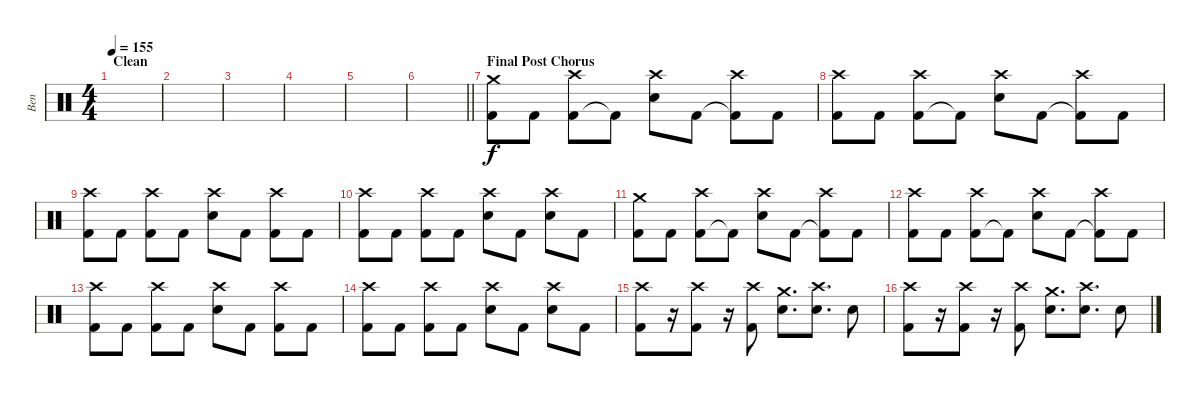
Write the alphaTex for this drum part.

\track ("Ben" "Ben") {instrument percussion}
\staff {score}
\articulation defaults
\ts (4 4)
\section ("" "Clean")
\tempo 155
\clef neutral
\ks c
|
|
|
|
|
\barLineRight lightlight
|
\section ("" "Final Post Chorus")
("Kick (hit) 2" "Crash medium (hit)").8 "Kick (hit) 2".8 ("Kick (hit) 2" "Crash high (hit)").8 "Kick (hit) 2"{t}.8 ("Electric Snare (hit)" "Crash high (hit)").8 "Kick (hit) 2".8 ("Kick (hit) 2"{t} "Crash high (hit)").8 "Kick (hit) 2".8 |
("Kick (hit) 2" "Crash high (hit)").8 "Kick (hit) 2".8 ("Kick (hit) 2" "Crash high (hit)").8 "Kick (hit) 2"{t}.8 ("Electric Snare (hit)" "Crash high (hit)").8 "Kick (hit) 2".8 ("Kick (hit) 2"{t} "Crash high (hit)").8 "Kick (hit) 2".8 |
("Kick (hit) 2" "Crash high (hit)").8 "Kick (hit) 2".8 ("Kick (hit) 2" "Crash high (hit)").8 "Kick (hit) 2".8 ("Electric Snare (hit)" "Crash high (hit)").8 "Kick (hit) 2".8 ("Kick (hit) 2" "Crash high (hit)").8 "Kick (hit) 2".8 |
("Kick (hit) 2" "Crash high (hit)").8 "Kick (hit) 2".8 ("Kick (hit) 2" "Crash high (hit)").8 "Kick (hit) 2".8 ("Electric Snare (hit)" "Crash high (hit)").8 "Kick (hit) 2".8 ("Electric Snare (hit)" "Crash high (hit)").8 "Kick (hit) 2".8 |
("Kick (hit) 2" "Crash medium (hit)").8 "Kick (hit) 2".8 ("Kick (hit) 2" "Crash high (hit)").8 "Kick (hit) 2"{t}.8 ("Electric Snare (hit)" "Crash high (hit)").8 "Kick (hit) 2".8 ("Kick (hit) 2"{t} "Crash high (hit)").8 "Kick (hit) 2".8 |
("Kick (hit) 2" "Crash high (hit)").8 "Kick (hit) 2".8 ("Kick (hit) 2" "Crash high (hit)").8 "Kick (hit) 2"{t}.8 ("Electric Snare (hit)" "Crash high (hit)").8 "Kick (hit) 2".8 ("Kick (hit) 2"{t} "Crash high (hit)").8 "Kick (hit) 2".8 |
("Kick (hit) 2" "Crash high (hit)").8 "Kick (hit) 2".8 ("Kick (hit) 2" "Crash high (hit)").8 "Kick (hit) 2".8 ("Electric Snare (hit)" "Crash high (hit)").8 "Kick (hit) 2".8 ("Kick (hit) 2" "Crash high (hit)").8 "Kick (hit) 2".8 |
("Kick (hit) 2" "Crash high (hit)").8 "Kick (hit) 2".8 ("Kick (hit) 2" "Crash high (hit)").8 "Kick (hit) 2".8 ("Electric Snare (hit)" "Crash high (hit)").8 "Kick (hit) 2".8 ("Electric Snare (hit)" "Crash high (hit)").8 "Kick (hit) 2".8 |
("Kick (hit) 2" "Crash high (hit)").8 r.16 ("Kick (hit) 2" "Crash high (hit)").8 r.16 ("Kick (hit) 2" "Crash high (hit)").8 ("Electric Snare (hit)" "Crash medium (hit)").8{d} ("Electric Snare (hit)" "Crash high (hit)").8{d} "Electric Snare (hit)".8 |
("Kick (hit) 2" "Crash high (hit)").8 r.16 ("Kick (hit) 2" "Crash high (hit)").8 r.16 ("Kick (hit) 2" "Crash high (hit)").8 ("Electric Snare (hit)" "Crash medium (hit)").8{d} ("Electric Snare (hit)" "Crash high (hit)").8{d} "Electric Snare (hit)".8
